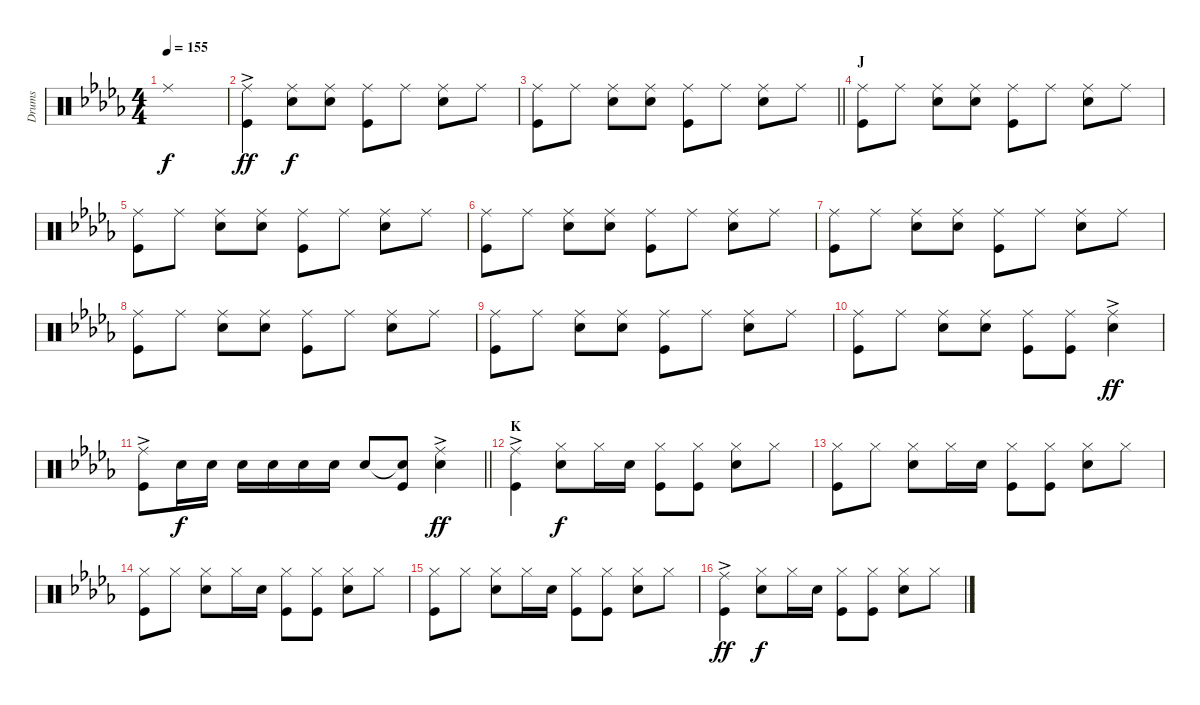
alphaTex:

\track ("Drums" "Drums") {instrument percussion}
\staff {score}
\articulation defaults
\ts (4 4)
\tempo 155
\clef neutral
\ks db "Ride (middle)"{t}.1{dy f}
|
("Ride (middle)"{ac} "Kick (hit)"{ac}).4{dy ff} ("Ride (middle)" "Snare (hit) 2").8{dy f} ("Ride (middle)" "Snare (hit) 2").8 ("Ride (middle)" "Kick (hit)").8 "Ride (middle)".8 ("Ride (middle)" "Snare (hit) 2").8 "Ride (middle)".8 |
\barLineRight lightlight
("Ride (middle)" "Kick (hit)").8 "Ride (middle)".8 ("Ride (middle)" "Snare (hit) 2").8 ("Ride (middle)" "Snare (hit) 2").8 ("Ride (middle)" "Kick (hit)").8 "Ride (middle)".8 ("Ride (middle)" "Snare (hit) 2").8 "Ride (middle)".8 |
\section ("" "J")
("Ride (middle)" "Kick (hit)").8 "Ride (middle)".8 ("Ride (middle)" "Snare (hit) 2").8 ("Ride (middle)" "Snare (hit) 2").8 ("Ride (middle)" "Kick (hit)").8 "Ride (middle)".8 ("Ride (middle)" "Snare (hit) 2").8 "Ride (middle)".8 |
("Ride (middle)" "Kick (hit)").8 "Ride (middle)".8 ("Ride (middle)" "Snare (hit) 2").8 ("Ride (middle)" "Snare (hit) 2").8 ("Ride (middle)" "Kick (hit)").8 "Ride (middle)".8 ("Ride (middle)" "Snare (hit) 2").8 "Ride (middle)".8 |
("Ride (middle)" "Kick (hit)").8 "Ride (middle)".8 ("Ride (middle)" "Snare (hit) 2").8 ("Ride (middle)" "Snare (hit) 2").8 ("Ride (middle)" "Kick (hit)").8 "Ride (middle)".8 ("Ride (middle)" "Snare (hit) 2").8 "Ride (middle)".8 |
("Ride (middle)" "Kick (hit)").8 "Ride (middle)".8 ("Ride (middle)" "Snare (hit) 2").8 ("Ride (middle)" "Snare (hit) 2").8 ("Ride (middle)" "Kick (hit)").8 "Ride (middle)".8 ("Ride (middle)" "Snare (hit) 2").8 "Ride (middle)".8 |
("Ride (middle)" "Kick (hit)").8 "Ride (middle)".8 ("Ride (middle)" "Snare (hit) 2").8 ("Ride (middle)" "Snare (hit) 2").8 ("Ride (middle)" "Kick (hit)").8 "Ride (middle)".8 ("Ride (middle)" "Snare (hit) 2").8 "Ride (middle)".8 |
("Ride (middle)" "Kick (hit)").8 "Ride (middle)".8 ("Ride (middle)" "Snare (hit) 2").8 ("Ride (middle)" "Snare (hit) 2").8 ("Ride (middle)" "Kick (hit)").8 "Ride (middle)".8 ("Ride (middle)" "Snare (hit) 2").8 "Ride (middle)".8 |
("Ride (middle)" "Kick (hit)").8 "Ride (middle)".8 ("Ride (middle)" "Snare (hit) 2").8 ("Ride (middle)" "Snare (hit) 2").8 ("Ride (middle)" "Kick (hit)").8 ("Ride (middle)" "Kick (hit)").8 ("Ride (middle)"{ac} "Snare (hit) 2"{ac}).4{dy ff} |
\barLineRight lightlight
("Ride (middle)"{ac} "Kick (hit)"{ac}).8 "Snare (hit) 2".16{dy f} "Snare (hit) 2".16 "Snare (hit) 2".16 "Snare (hit) 2".16 "Snare (hit) 2".16 "Snare (hit) 2".16 "Snare (hit) 2".8 ("Snare (hit) 2"{t} "Kick (hit)").8 ("Ride (middle)"{ac} "Snare (hit) 2"{ac}).4{dy ff} |
\section ("" "K")
("Ride (middle)"{ac} "Kick (hit)"{ac}).4 ("Hi-Hat (closed)" "Snare (hit) 2").8{dy f} "Hi-Hat (closed)".16 "Snare (hit) 2".16 ("Hi-Hat (closed)" "Kick (hit)").8 ("Hi-Hat (closed)" "Kick (hit)").8 ("Hi-Hat (closed)" "Snare (hit) 2").8 "Hi-Hat (closed)".8 |
("Hi-Hat (closed)" "Kick (hit)").8 "Hi-Hat (closed)".8 ("Hi-Hat (closed)" "Snare (hit) 2").8 "Hi-Hat (closed)".16 "Snare (hit) 2".16 ("Hi-Hat (closed)" "Kick (hit)").8 ("Hi-Hat (closed)" "Kick (hit)").8 ("Hi-Hat (closed)" "Snare (hit) 2").8 "Hi-Hat (closed)".8 |
("Hi-Hat (closed)" "Kick (hit)").8 "Hi-Hat (closed)".8 ("Hi-Hat (closed)" "Snare (hit) 2").8 "Hi-Hat (closed)".16 "Snare (hit) 2".16 ("Hi-Hat (closed)" "Kick (hit)").8 ("Hi-Hat (closed)" "Kick (hit)").8 ("Hi-Hat (closed)" "Snare (hit) 2").8 "Hi-Hat (closed)".8 |
("Hi-Hat (closed)" "Kick (hit)").8 "Hi-Hat (closed)".8 ("Hi-Hat (closed)" "Snare (hit) 2").8 "Hi-Hat (closed)".16 "Snare (hit) 2".16 ("Hi-Hat (closed)" "Kick (hit)").8 ("Hi-Hat (closed)" "Kick (hit)").8 ("Hi-Hat (closed)" "Snare (hit) 2").8 "Hi-Hat (closed)".8 |
("Ride (middle)"{ac} "Kick (hit)"{ac}).4{dy ff} ("Hi-Hat (closed)" "Snare (hit) 2").8{dy f} "Hi-Hat (closed)".16 "Snare (hit) 2".16 ("Hi-Hat (closed)" "Kick (hit)").8 ("Hi-Hat (closed)" "Kick (hit)").8 ("Hi-Hat (closed)" "Snare (hit) 2").8 "Hi-Hat (closed)".8
